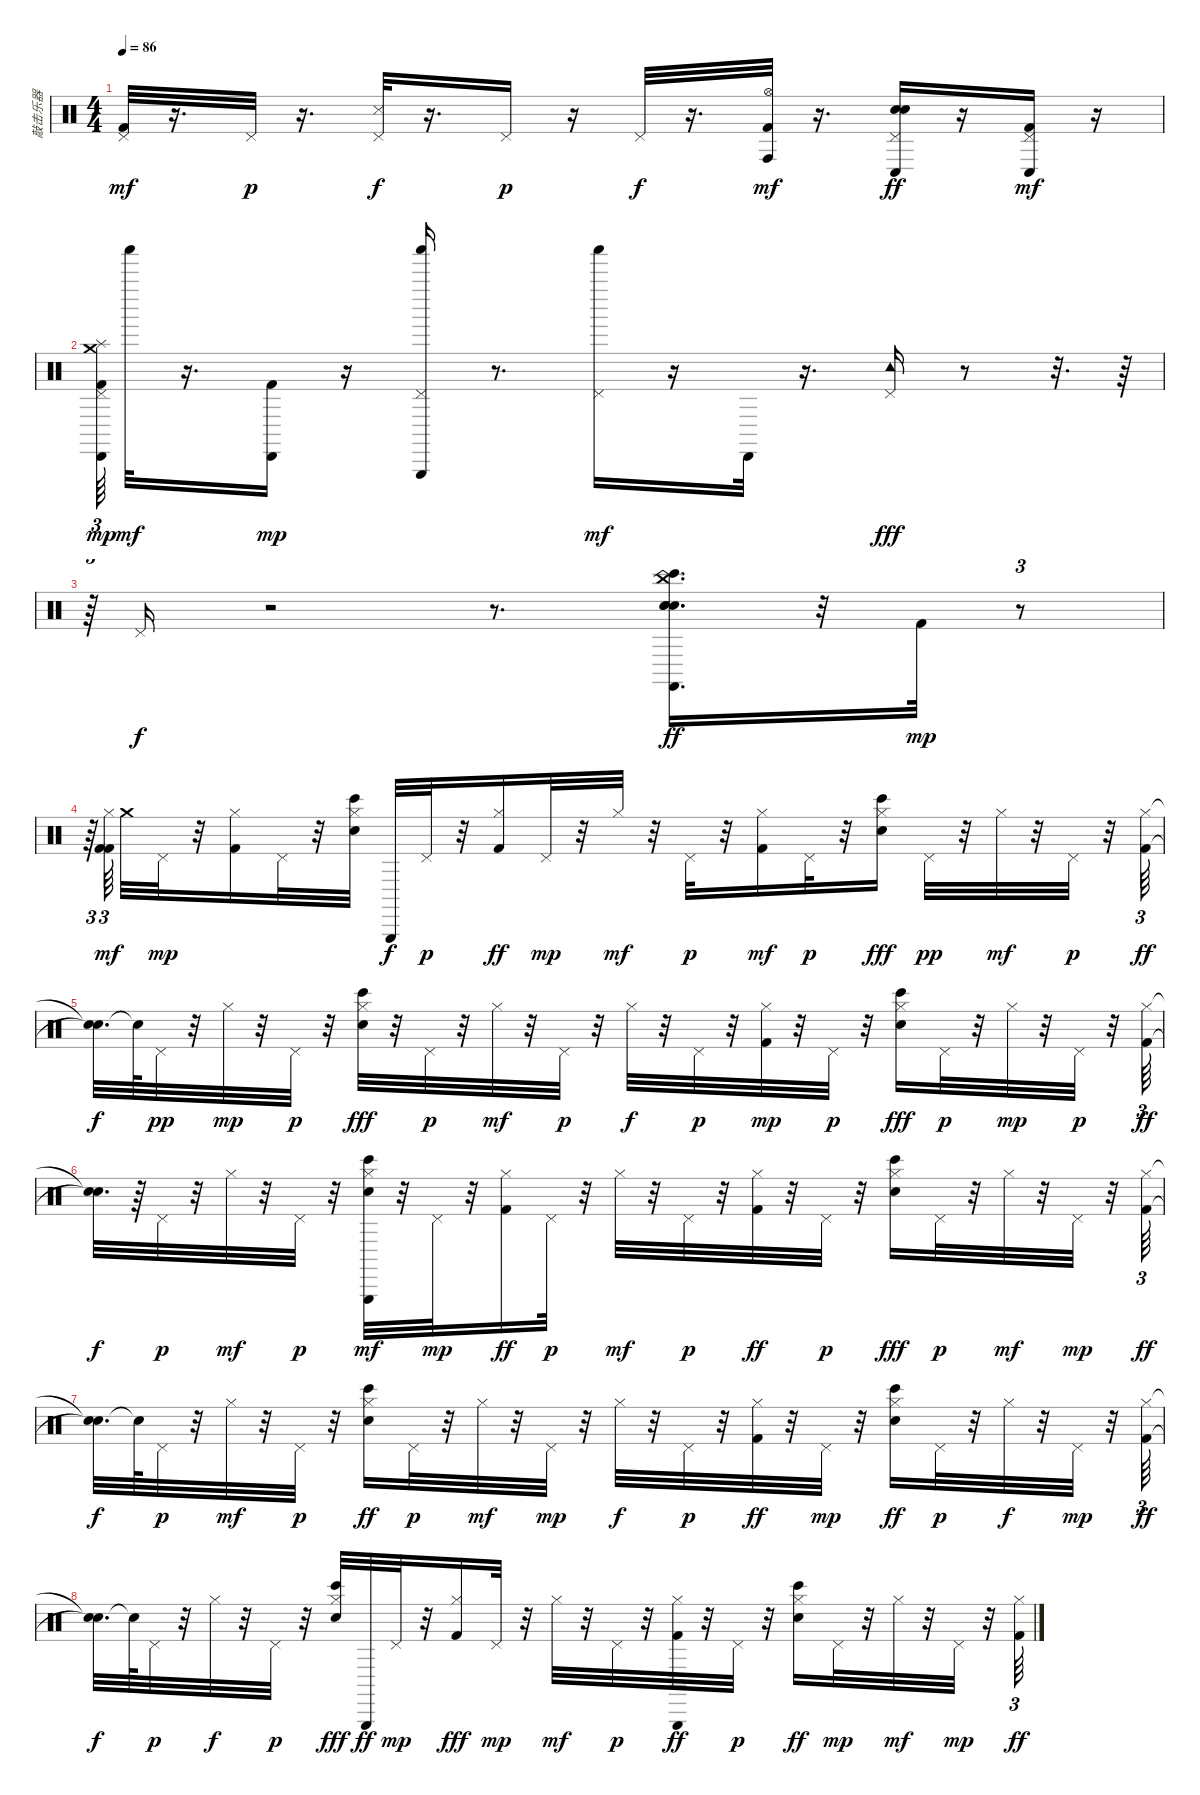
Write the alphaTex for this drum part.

\track ("敲击乐器" "敲击乐器") {instrument percussion}
\staff {score}
\articulation defaults
\ts (4 4)
\tempo 86
\clef neutral
\ks c
("Pedal Hi-Hat (hit)" "Kick (hit) 2").32{dy mf} r.16{d} "Pedal Hi-Hat (hit)".32{dy p} r.16{d} ("Pedal Hi-Hat (hit)" "Snare (side stick) 3").32{dy f} r.16{d} "Pedal Hi-Hat (hit)".16{dy p} r.16 "Pedal Hi-Hat (hit)".32{dy f} r.16{d} ("Hi-Hat (open)" "Conga high (hit)" "Kick (hit) 2").32{dy mf} r.16{d} ("Pedal Hi-Hat (hit)" "Snare (hit)" "Conga low (hit)" "Electric Snare (hit)").16{dy ff} r.16 ("Pedal Hi-Hat (hit)" "Conga low (hit)" "Kick (hit) 2").16{dy mf} r.16 |
("Pedal Hi-Hat (hit)" "Cabasa (hit)" "Splash (hit)" "Crash medium (hit)" "Kick (hit) 2").64{tu (3 2) dy mp} "Shaker (hit)".32{dy mf} r.16{d} ("Kick (hit) 2" "Cabasa (hit)").16{dy mp} r.16 ("Pedal Hi-Hat (hit)" "Triangle (hit)" "Shaker (hit)").16 r.8{d} ("Pedal Hi-Hat (hit)" "Shaker (hit)").16{dy mf} r.16 "Cabasa (hit)".32 r.16{d} ("Pedal Hi-Hat (hit)" "Tambourine (hit)").16{dy fff} r.8 r.32{d} r.64 |
r.64{tu (3 2)} "Pedal Hi-Hat (hit)".16{dy f} r.2 r.8{d} ("China (hit)" "Snare (hit)" "Hand Clap (hit)" "Snare (hit)" "Castanets (hit)" "Bongo High (hit)").16{d dy ff} r.32 "Kick (hit) 2".32{dy mp} r.8{tu (3 2)} |
r.64{tu (3 2)} ("Hi-Hat (closed)" "Kick (hit) 2" "Kick (hit) 2").64{tu (3 2) dy mf beam splitsecondary} "Crash medium (hit)".32 "Pedal Hi-Hat (hit)".32{dy mp} r.32 ("Hi-Hat (closed)" "Kick (hit) 2").16 "Pedal Hi-Hat (hit)".32 r.32 ("Hi-Hat (closed)" "Electric Snare (hit)" "Bongo High (hit)").32 "Triangle (hit)".32{dy f} "Pedal Hi-Hat (hit)".32{dy p} r.32 ("Hi-Hat (closed)" "Kick (hit) 2").16{dy ff} "Pedal Hi-Hat (hit)".32{dy mp} r.32 "Hi-Hat (closed)".32{dy mf} r.32 "Pedal Hi-Hat (hit)".32{dy p} r.32 ("Hi-Hat (closed)" "Kick (hit) 2").16{dy mf} "Pedal Hi-Hat (hit)".32{dy p} r.32 ("Hi-Hat (closed)" "Electric Snare (hit)" "Bongo High (hit)").16{dy fff} "Pedal Hi-Hat (hit)".32{dy pp} r.32 "Hi-Hat (closed)".32{dy mf} r.32 "Pedal Hi-Hat (hit)".32{dy p} r.32 ("Hi-Hat (closed)" "Kick (hit) 2").64{tu (3 2) dy ff} |
("Snare (hit)"{t} "Snare (hit)"{t}).32{d dy f} "Snare (hit)"{t}.64 "Pedal Hi-Hat (hit)".32{dy pp} r.32 "Hi-Hat (closed)".32{dy mp} r.32 "Pedal Hi-Hat (hit)".32{dy p} r.32 ("Hi-Hat (closed)" "Electric Snare (hit)" "Bongo High (hit)").32{dy fff} r.32 "Pedal Hi-Hat (hit)".32{dy p} r.32 "Hi-Hat (closed)".32{dy mf} r.32 "Pedal Hi-Hat (hit)".32{dy p} r.32 "Hi-Hat (closed)".32{dy f} r.32 "Pedal Hi-Hat (hit)".32{dy p} r.32 ("Hi-Hat (closed)" "Kick (hit) 2").32{dy mp} r.32 "Pedal Hi-Hat (hit)".32{dy p} r.32 ("Hi-Hat (closed)" "Electric Snare (hit)" "Bongo High (hit)").16{dy fff} "Pedal Hi-Hat (hit)".32{dy p} r.32 "Hi-Hat (closed)".32{dy mp} r.32 "Pedal Hi-Hat (hit)".32{dy p} r.32 ("Hi-Hat (closed)" "Kick (hit) 2").64{tu (3 2) dy ff} |
("Snare (hit)"{t} "Snare (hit)"{t}).32{d dy f} r.64 "Pedal Hi-Hat (hit)".32{dy p} r.32 "Hi-Hat (closed)".32{dy mf} r.32 "Pedal Hi-Hat (hit)".32{dy p} r.32 ("Triangle (hit)" "Hi-Hat (closed)" "Electric Snare (hit)" "Bongo High (hit)").32{dy mf} r.32 "Pedal Hi-Hat (hit)".32{dy mp} r.32 ("Hi-Hat (closed)" "Kick (hit) 2").16{dy ff} "Pedal Hi-Hat (hit)".32{dy p} r.32 "Hi-Hat (closed)".32{dy mf} r.32 "Pedal Hi-Hat (hit)".32{dy p} r.32 ("Hi-Hat (closed)" "Kick (hit) 2").32{dy ff} r.32 "Pedal Hi-Hat (hit)".32{dy p} r.32 ("Hi-Hat (closed)" "Electric Snare (hit)" "Bongo High (hit)").16{dy fff} "Pedal Hi-Hat (hit)".32{dy p} r.32 "Hi-Hat (closed)".32{dy mf} r.32 "Pedal Hi-Hat (hit)".32{dy mp} r.32 ("Hi-Hat (closed)" "Kick (hit) 2").64{tu (3 2) dy ff} |
("Snare (hit)"{t} "Snare (hit)"{t}).32{d dy f} "Snare (hit)"{t}.64 "Pedal Hi-Hat (hit)".32{dy p} r.32 "Hi-Hat (closed)".32{dy mf} r.32 "Pedal Hi-Hat (hit)".32{dy p} r.32 ("Hi-Hat (closed)" "Electric Snare (hit)" "Bongo High (hit)").16{dy ff} "Pedal Hi-Hat (hit)".32{dy p} r.32 "Hi-Hat (closed)".32{dy mf} r.32 "Pedal Hi-Hat (hit)".32{dy mp} r.32 "Hi-Hat (closed)".32{dy f} r.32 "Pedal Hi-Hat (hit)".32{dy p} r.32 ("Hi-Hat (closed)" "Kick (hit) 2").32{dy ff} r.32 "Pedal Hi-Hat (hit)".32{dy mp} r.32 ("Hi-Hat (closed)" "Electric Snare (hit)" "Bongo High (hit)").16{dy ff} "Pedal Hi-Hat (hit)".32{dy p} r.32 "Hi-Hat (closed)".32{dy f} r.32 "Pedal Hi-Hat (hit)".32{dy mp} r.32 ("Hi-Hat (closed)" "Kick (hit) 2").64{tu (3 2) dy ff} |
("Snare (hit)"{t} "Snare (hit)"{t}).32{d dy f} "Snare (hit)"{t}.64 "Pedal Hi-Hat (hit)".32{dy p} r.32 "Hi-Hat (closed)".32{dy f} r.32 "Pedal Hi-Hat (hit)".32{dy p} r.32 ("Hi-Hat (closed)" "Bongo High (hit)" "Electric Snare (hit)").32{dy fff} "Triangle (hit)".32{dy ff} "Pedal Hi-Hat (hit)".32{dy mp} r.32 ("Hi-Hat (closed)" "Kick (hit) 2").16{dy fff} "Pedal Hi-Hat (hit)".32{dy mp} r.32 "Hi-Hat (closed)".32{dy mf} r.32 "Pedal Hi-Hat (hit)".32{dy p} r.32 ("Triangle (hit)" "Hi-Hat (closed)" "Kick (hit) 2").32{dy ff} r.32 "Pedal Hi-Hat (hit)".32{dy p} r.32 ("Hi-Hat (closed)" "Bongo High (hit)" "Electric Snare (hit)").16{dy ff} "Pedal Hi-Hat (hit)".32{dy mp} r.32 "Hi-Hat (closed)".32{dy mf} r.32 "Pedal Hi-Hat (hit)".32{dy mp} r.32 ("Hi-Hat (closed)" "Kick (hit) 2").64{tu (3 2) dy ff}
